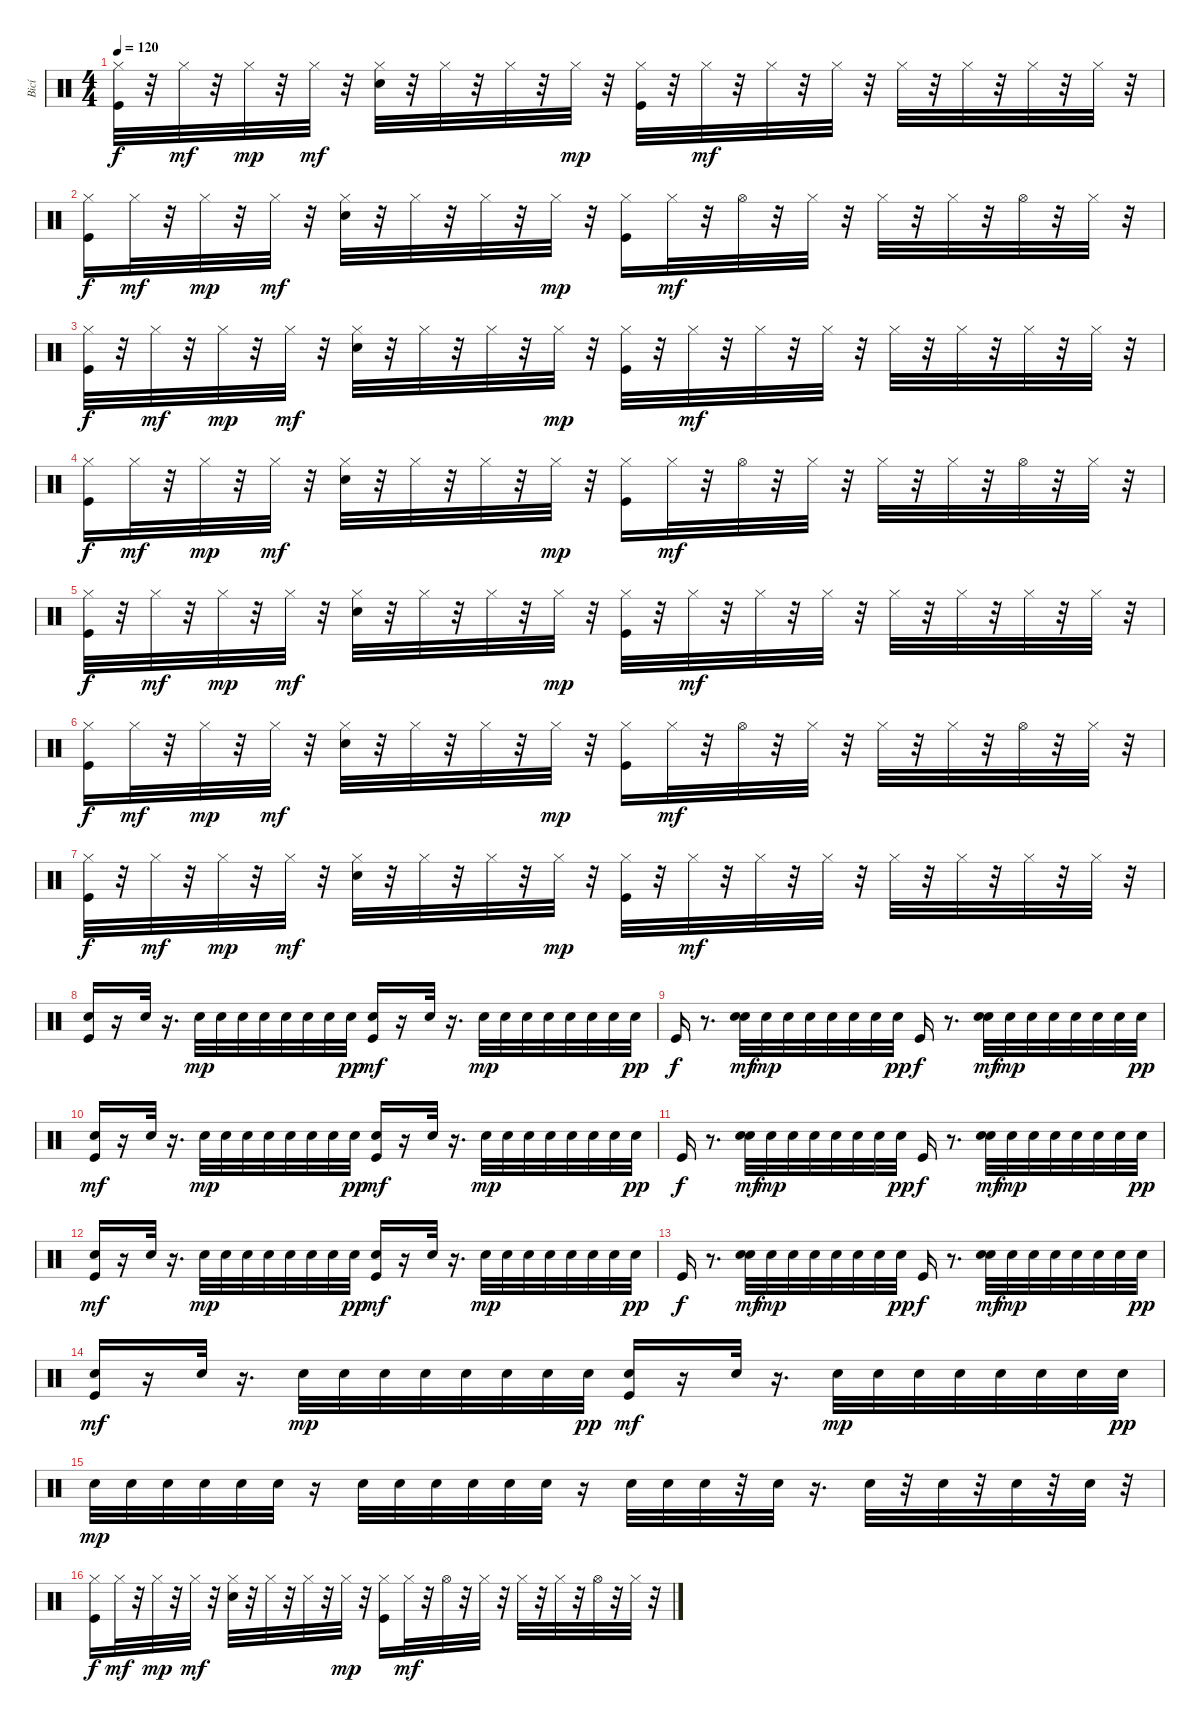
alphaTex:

\track ("Bicí" "Bicí") {instrument percussion}
\staff {score}
\articulation defaults
\ts (4 4)
\tempo 120
\clef neutral
\ks c
("Hi-Hat (closed)" "Kick (hit)").32{dy f} r.32 "Hi-Hat (closed)".32{dy mf} r.32 "Hi-Hat (closed)".32{dy mp} r.32 "Hi-Hat (closed)".32{dy mf} r.32 ("Hi-Hat (closed)" "Snare (hit) 2").32 r.32 "Hi-Hat (closed)".32 r.32 "Hi-Hat (closed)".32 r.32 "Hi-Hat (closed)".32{dy mp} r.32 ("Hi-Hat (closed)" "Kick (hit)").32 r.32 "Hi-Hat (closed)".32{dy mf} r.32 "Hi-Hat (closed)".32 r.32 "Hi-Hat (closed)".32 r.32 "Hi-Hat (closed)".32 r.32 "Hi-Hat (closed)".32 r.32 "Hi-Hat (closed)".32 r.32 "Hi-Hat (closed)".32 r.32 |
("Hi-Hat (closed)" "Kick (hit)").16{dy f} "Hi-Hat (closed)".32{dy mf} r.32 "Hi-Hat (closed)".32{dy mp} r.32 "Hi-Hat (closed)".32{dy mf} r.32 ("Hi-Hat (closed)" "Snare (hit) 2").32 r.32 "Hi-Hat (closed)".32 r.32 "Hi-Hat (closed)".32 r.32 "Hi-Hat (closed)".32{dy mp} r.32 ("Hi-Hat (closed)" "Kick (hit)").16 "Hi-Hat (closed)".32{dy mf} r.32 "Hi-Hat (open)".32 r.32 "Hi-Hat (closed)".32 r.32 "Hi-Hat (closed)".32 r.32 "Hi-Hat (closed)".32 r.32 "Hi-Hat (open)".32 r.32 "Hi-Hat (closed)".32 r.32 |
("Hi-Hat (closed)" "Kick (hit)").32{dy f} r.32 "Hi-Hat (closed)".32{dy mf} r.32 "Hi-Hat (closed)".32{dy mp} r.32 "Hi-Hat (closed)".32{dy mf} r.32 ("Hi-Hat (closed)" "Snare (hit) 2").32 r.32 "Hi-Hat (closed)".32 r.32 "Hi-Hat (closed)".32 r.32 "Hi-Hat (closed)".32{dy mp} r.32 ("Hi-Hat (closed)" "Kick (hit)").32 r.32 "Hi-Hat (closed)".32{dy mf} r.32 "Hi-Hat (closed)".32 r.32 "Hi-Hat (closed)".32 r.32 "Hi-Hat (closed)".32 r.32 "Hi-Hat (closed)".32 r.32 "Hi-Hat (closed)".32 r.32 "Hi-Hat (closed)".32 r.32 |
("Hi-Hat (closed)" "Kick (hit)").16{dy f} "Hi-Hat (closed)".32{dy mf} r.32 "Hi-Hat (closed)".32{dy mp} r.32 "Hi-Hat (closed)".32{dy mf} r.32 ("Hi-Hat (closed)" "Snare (hit) 2").32 r.32 "Hi-Hat (closed)".32 r.32 "Hi-Hat (closed)".32 r.32 "Hi-Hat (closed)".32{dy mp} r.32 ("Hi-Hat (closed)" "Kick (hit)").16 "Hi-Hat (closed)".32{dy mf} r.32 "Hi-Hat (open)".32 r.32 "Hi-Hat (closed)".32 r.32 "Hi-Hat (closed)".32 r.32 "Hi-Hat (closed)".32 r.32 "Hi-Hat (open)".32 r.32 "Hi-Hat (closed)".32 r.32 |
("Hi-Hat (closed)" "Kick (hit)").32{dy f} r.32 "Hi-Hat (closed)".32{dy mf} r.32 "Hi-Hat (closed)".32{dy mp} r.32 "Hi-Hat (closed)".32{dy mf} r.32 ("Hi-Hat (closed)" "Snare (hit) 2").32 r.32 "Hi-Hat (closed)".32 r.32 "Hi-Hat (closed)".32 r.32 "Hi-Hat (closed)".32{dy mp} r.32 ("Hi-Hat (closed)" "Kick (hit)").32 r.32 "Hi-Hat (closed)".32{dy mf} r.32 "Hi-Hat (closed)".32 r.32 "Hi-Hat (closed)".32 r.32 "Hi-Hat (closed)".32 r.32 "Hi-Hat (closed)".32 r.32 "Hi-Hat (closed)".32 r.32 "Hi-Hat (closed)".32 r.32 |
("Hi-Hat (closed)" "Kick (hit)").16{dy f} "Hi-Hat (closed)".32{dy mf} r.32 "Hi-Hat (closed)".32{dy mp} r.32 "Hi-Hat (closed)".32{dy mf} r.32 ("Hi-Hat (closed)" "Snare (hit) 2").32 r.32 "Hi-Hat (closed)".32 r.32 "Hi-Hat (closed)".32 r.32 "Hi-Hat (closed)".32{dy mp} r.32 ("Hi-Hat (closed)" "Kick (hit)").16 "Hi-Hat (closed)".32{dy mf} r.32 "Hi-Hat (open)".32 r.32 "Hi-Hat (closed)".32 r.32 "Hi-Hat (closed)".32 r.32 "Hi-Hat (closed)".32 r.32 "Hi-Hat (open)".32 r.32 "Hi-Hat (closed)".32 r.32 |
("Hi-Hat (closed)" "Kick (hit)").32{dy f} r.32 "Hi-Hat (closed)".32{dy mf} r.32 "Hi-Hat (closed)".32{dy mp} r.32 "Hi-Hat (closed)".32{dy mf} r.32 ("Hi-Hat (closed)" "Snare (hit) 2").32 r.32 "Hi-Hat (closed)".32 r.32 "Hi-Hat (closed)".32 r.32 "Hi-Hat (closed)".32{dy mp} r.32 ("Hi-Hat (closed)" "Kick (hit)").32 r.32 "Hi-Hat (closed)".32{dy mf} r.32 "Hi-Hat (closed)".32 r.32 "Hi-Hat (closed)".32 r.32 "Hi-Hat (closed)".32 r.32 "Hi-Hat (closed)".32 r.32 "Hi-Hat (closed)".32 r.32 "Hi-Hat (closed)".32 r.32 |
("Kick (hit)" "Hand Clap (hit)").16 r.16 "Hand Clap (hit)".32 r.16{d} "Snare (hit) 2".32{dy mp} "Snare (hit) 2".32 "Snare (hit) 2".32 "Snare (hit) 2".32 "Snare (hit) 2".32 "Snare (hit) 2".32 "Snare (hit) 2".32 "Snare (hit) 2".32{dy pp} ("Kick (hit)" "Hand Clap (hit)").16{dy mf} r.16 "Hand Clap (hit)".32 r.16{d} "Snare (hit) 2".32{dy mp} "Snare (hit) 2".32 "Snare (hit) 2".32 "Snare (hit) 2".32 "Snare (hit) 2".32 "Snare (hit) 2".32 "Snare (hit) 2".32 "Snare (hit) 2".32{dy pp} |
"Kick (hit)".16{dy f} r.8{d} ("Snare (hit) 2" "Hand Clap (hit)").32{dy mf} "Snare (hit) 2".32{dy mp} "Snare (hit) 2".32 "Snare (hit) 2".32 "Snare (hit) 2".32 "Snare (hit) 2".32 "Snare (hit) 2".32 "Snare (hit) 2".32{dy pp} "Kick (hit)".16{dy f} r.8{d} ("Snare (hit) 2" "Hand Clap (hit)").32{dy mf} "Snare (hit) 2".32{dy mp} "Snare (hit) 2".32 "Snare (hit) 2".32 "Snare (hit) 2".32 "Snare (hit) 2".32 "Snare (hit) 2".32 "Snare (hit) 2".32{dy pp} |
("Kick (hit)" "Hand Clap (hit)").16{dy mf} r.16 "Hand Clap (hit)".32 r.16{d} "Snare (hit) 2".32{dy mp} "Snare (hit) 2".32 "Snare (hit) 2".32 "Snare (hit) 2".32 "Snare (hit) 2".32 "Snare (hit) 2".32 "Snare (hit) 2".32 "Snare (hit) 2".32{dy pp} ("Kick (hit)" "Hand Clap (hit)").16{dy mf} r.16 "Hand Clap (hit)".32 r.16{d} "Snare (hit) 2".32{dy mp} "Snare (hit) 2".32 "Snare (hit) 2".32 "Snare (hit) 2".32 "Snare (hit) 2".32 "Snare (hit) 2".32 "Snare (hit) 2".32 "Snare (hit) 2".32{dy pp} |
"Kick (hit)".16{dy f} r.8{d} ("Snare (hit) 2" "Hand Clap (hit)").32{dy mf} "Snare (hit) 2".32{dy mp} "Snare (hit) 2".32 "Snare (hit) 2".32 "Snare (hit) 2".32 "Snare (hit) 2".32 "Snare (hit) 2".32 "Snare (hit) 2".32{dy pp} "Kick (hit)".16{dy f} r.8{d} ("Snare (hit) 2" "Hand Clap (hit)").32{dy mf} "Snare (hit) 2".32{dy mp} "Snare (hit) 2".32 "Snare (hit) 2".32 "Snare (hit) 2".32 "Snare (hit) 2".32 "Snare (hit) 2".32 "Snare (hit) 2".32{dy pp} |
("Kick (hit)" "Hand Clap (hit)").16{dy mf} r.16 "Hand Clap (hit)".32 r.16{d} "Snare (hit) 2".32{dy mp} "Snare (hit) 2".32 "Snare (hit) 2".32 "Snare (hit) 2".32 "Snare (hit) 2".32 "Snare (hit) 2".32 "Snare (hit) 2".32 "Snare (hit) 2".32{dy pp} ("Kick (hit)" "Hand Clap (hit)").16{dy mf} r.16 "Hand Clap (hit)".32 r.16{d} "Snare (hit) 2".32{dy mp} "Snare (hit) 2".32 "Snare (hit) 2".32 "Snare (hit) 2".32 "Snare (hit) 2".32 "Snare (hit) 2".32 "Snare (hit) 2".32 "Snare (hit) 2".32{dy pp} |
"Kick (hit)".16{dy f} r.8{d} ("Snare (hit) 2" "Hand Clap (hit)").32{dy mf} "Snare (hit) 2".32{dy mp} "Snare (hit) 2".32 "Snare (hit) 2".32 "Snare (hit) 2".32 "Snare (hit) 2".32 "Snare (hit) 2".32 "Snare (hit) 2".32{dy pp} "Kick (hit)".16{dy f} r.8{d} ("Snare (hit) 2" "Hand Clap (hit)").32{dy mf} "Snare (hit) 2".32{dy mp} "Snare (hit) 2".32 "Snare (hit) 2".32 "Snare (hit) 2".32 "Snare (hit) 2".32 "Snare (hit) 2".32 "Snare (hit) 2".32{dy pp} |
("Kick (hit)" "Hand Clap (hit)").16{dy mf} r.16 "Hand Clap (hit)".32 r.16{d} "Snare (hit) 2".32{dy mp} "Snare (hit) 2".32 "Snare (hit) 2".32 "Snare (hit) 2".32 "Snare (hit) 2".32 "Snare (hit) 2".32 "Snare (hit) 2".32 "Snare (hit) 2".32{dy pp} ("Kick (hit)" "Hand Clap (hit)").16{dy mf} r.16 "Hand Clap (hit)".32 r.16{d} "Snare (hit) 2".32{dy mp} "Snare (hit) 2".32 "Snare (hit) 2".32 "Snare (hit) 2".32 "Snare (hit) 2".32 "Snare (hit) 2".32 "Snare (hit) 2".32 "Snare (hit) 2".32{dy pp} |
"Snare (hit) 2".32{dy mp} "Snare (hit) 2".32 "Snare (hit) 2".32 "Snare (hit) 2".32 "Snare (hit) 2".32 "Snare (hit) 2".32 r.16 "Snare (hit) 2".32 "Snare (hit) 2".32 "Snare (hit) 2".32 "Snare (hit) 2".32 "Snare (hit) 2".32 "Snare (hit) 2".32 r.16 "Snare (hit) 2".32 "Snare (hit) 2".32 "Snare (hit) 2".32 r.32 "Snare (hit) 2".32 r.16{d} "Snare (hit) 2".32 r.32 "Snare (hit) 2".32 r.32 "Snare (hit) 2".32 r.32 "Snare (hit) 2".32 r.32 |
("Hi-Hat (closed)" "Kick (hit)").16{dy f} "Hi-Hat (closed)".32{dy mf} r.32 "Hi-Hat (closed)".32{dy mp} r.32 "Hi-Hat (closed)".32{dy mf} r.32 ("Hi-Hat (closed)" "Snare (hit) 2").32 r.32 "Hi-Hat (closed)".32 r.32 "Hi-Hat (closed)".32 r.32 "Hi-Hat (closed)".32{dy mp} r.32 ("Hi-Hat (closed)" "Kick (hit)").16 "Hi-Hat (closed)".32{dy mf} r.32 "Hi-Hat (open)".32 r.32 "Hi-Hat (closed)".32 r.32 "Hi-Hat (closed)".32 r.32 "Hi-Hat (closed)".32 r.32 "Hi-Hat (open)".32 r.32 "Hi-Hat (closed)".32 r.32
